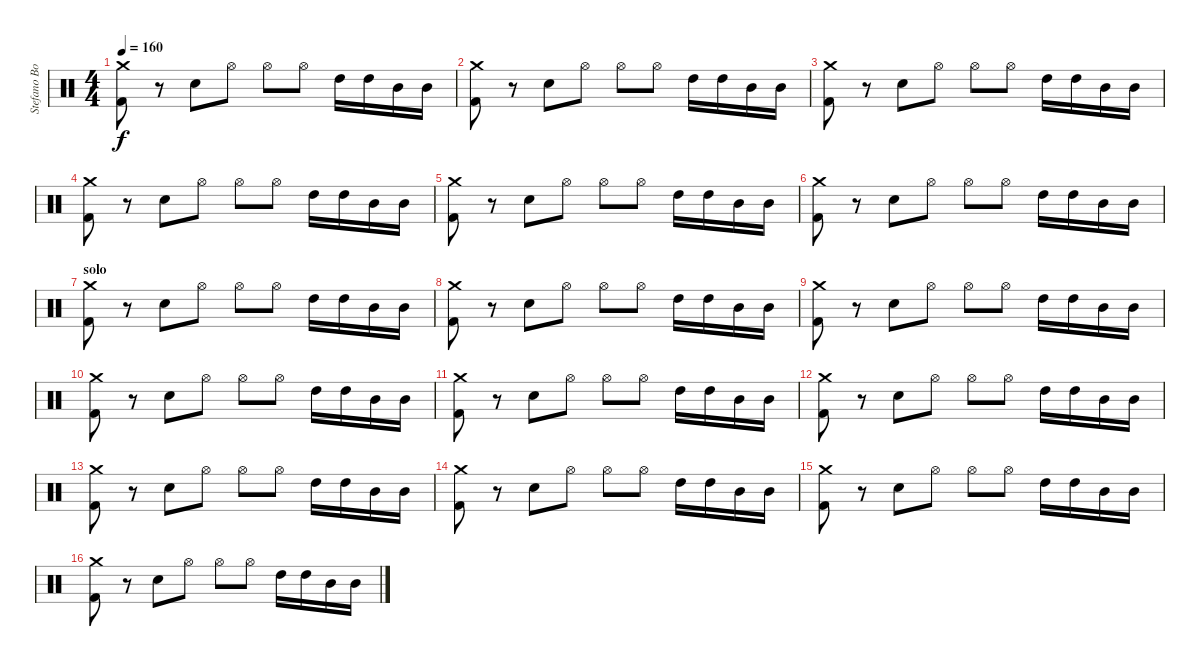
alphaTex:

\track ("Stefano Bonini" "Stefano Bo") {instrument percussion}
\staff {score}
\articulation defaults
\ts (4 4)
\tempo 160
\clef neutral
\ks c
("Crash medium (hit)" "Kick (hit) 2").8{dy f} r.8 "Snare (hit) 2".8 "Hi-Hat (open)".8 "Hi-Hat (open)".8 "Hi-Hat (open)".8 "High Tom (hit)".16 "High Tom (hit)".16 "Mid Tom (hit)".16 "Mid Tom (hit)".16 |
("Crash medium (hit)" "Kick (hit) 2").8 r.8 "Snare (hit) 2".8 "Hi-Hat (open)".8 "Hi-Hat (open)".8 "Hi-Hat (open)".8 "High Tom (hit)".16 "High Tom (hit)".16 "Mid Tom (hit)".16 "Mid Tom (hit)".16 |
("Crash medium (hit)" "Kick (hit) 2").8 r.8 "Snare (hit) 2".8 "Hi-Hat (open)".8 "Hi-Hat (open)".8 "Hi-Hat (open)".8 "High Tom (hit)".16 "High Tom (hit)".16 "Mid Tom (hit)".16 "Mid Tom (hit)".16 |
("Crash medium (hit)" "Kick (hit) 2").8 r.8 "Snare (hit) 2".8 "Hi-Hat (open)".8 "Hi-Hat (open)".8 "Hi-Hat (open)".8 "High Tom (hit)".16 "High Tom (hit)".16 "Mid Tom (hit)".16 "Mid Tom (hit)".16 |
("Crash medium (hit)" "Kick (hit) 2").8 r.8 "Snare (hit) 2".8 "Hi-Hat (open)".8 "Hi-Hat (open)".8 "Hi-Hat (open)".8 "High Tom (hit)".16 "High Tom (hit)".16 "Mid Tom (hit)".16 "Mid Tom (hit)".16 |
("Crash medium (hit)" "Kick (hit) 2").8 r.8 "Snare (hit) 2".8 "Hi-Hat (open)".8 "Hi-Hat (open)".8 "Hi-Hat (open)".8 "High Tom (hit)".16 "High Tom (hit)".16 "Mid Tom (hit)".16 "Mid Tom (hit)".16 |
\section ("" "solo")
("Crash medium (hit)" "Kick (hit) 2").8 r.8 "Snare (hit) 2".8 "Hi-Hat (open)".8 "Hi-Hat (open)".8 "Hi-Hat (open)".8 "High Tom (hit)".16 "High Tom (hit)".16 "Mid Tom (hit)".16 "Mid Tom (hit)".16 |
("Crash medium (hit)" "Kick (hit) 2").8 r.8 "Snare (hit) 2".8 "Hi-Hat (open)".8 "Hi-Hat (open)".8 "Hi-Hat (open)".8 "High Tom (hit)".16 "High Tom (hit)".16 "Mid Tom (hit)".16 "Mid Tom (hit)".16 |
("Crash medium (hit)" "Kick (hit) 2").8 r.8 "Snare (hit) 2".8 "Hi-Hat (open)".8 "Hi-Hat (open)".8 "Hi-Hat (open)".8 "High Tom (hit)".16 "High Tom (hit)".16 "Mid Tom (hit)".16 "Mid Tom (hit)".16 |
("Crash medium (hit)" "Kick (hit) 2").8 r.8 "Snare (hit) 2".8 "Hi-Hat (open)".8 "Hi-Hat (open)".8 "Hi-Hat (open)".8 "High Tom (hit)".16 "High Tom (hit)".16 "Mid Tom (hit)".16 "Mid Tom (hit)".16 |
("Crash medium (hit)" "Kick (hit) 2").8 r.8 "Snare (hit) 2".8 "Hi-Hat (open)".8 "Hi-Hat (open)".8 "Hi-Hat (open)".8 "High Tom (hit)".16 "High Tom (hit)".16 "Mid Tom (hit)".16 "Mid Tom (hit)".16 |
("Crash medium (hit)" "Kick (hit) 2").8 r.8 "Snare (hit) 2".8 "Hi-Hat (open)".8 "Hi-Hat (open)".8 "Hi-Hat (open)".8 "High Tom (hit)".16 "High Tom (hit)".16 "Mid Tom (hit)".16 "Mid Tom (hit)".16 |
("Crash medium (hit)" "Kick (hit) 2").8 r.8 "Snare (hit) 2".8 "Hi-Hat (open)".8 "Hi-Hat (open)".8 "Hi-Hat (open)".8 "High Tom (hit)".16 "High Tom (hit)".16 "Mid Tom (hit)".16 "Mid Tom (hit)".16 |
("Crash medium (hit)" "Kick (hit) 2").8 r.8 "Snare (hit) 2".8 "Hi-Hat (open)".8 "Hi-Hat (open)".8 "Hi-Hat (open)".8 "High Tom (hit)".16 "High Tom (hit)".16 "Mid Tom (hit)".16 "Mid Tom (hit)".16 |
("Crash medium (hit)" "Kick (hit) 2").8 r.8 "Snare (hit) 2".8 "Hi-Hat (open)".8 "Hi-Hat (open)".8 "Hi-Hat (open)".8 "High Tom (hit)".16 "High Tom (hit)".16 "Mid Tom (hit)".16 "Mid Tom (hit)".16 |
("Crash medium (hit)" "Kick (hit) 2").8 r.8 "Snare (hit) 2".8 "Hi-Hat (open)".8 "Hi-Hat (open)".8 "Hi-Hat (open)".8 "High Tom (hit)".16 "High Tom (hit)".16 "Mid Tom (hit)".16 "Mid Tom (hit)".16
